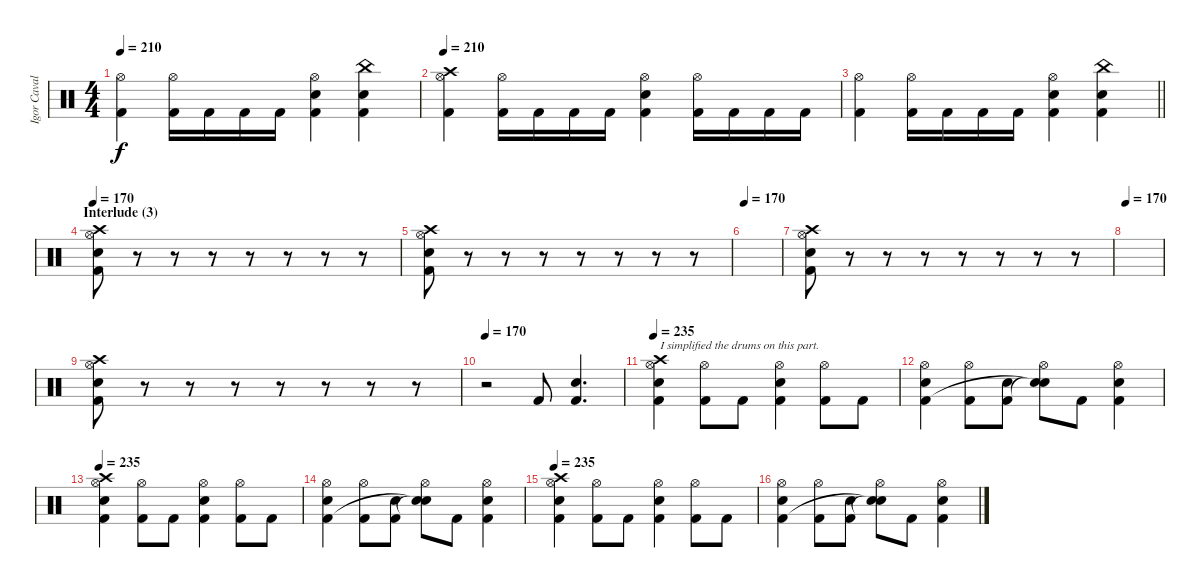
\track ("Igor Cavalera" "Igor Caval") {instrument percussion}
\staff {score}
\articulation defaults
\ts (4 4)
\tempo 210
\clef neutral
\ks c
("Hi-Hat (open)" "Kick (hit) 2").4{dy f} ("Hi-Hat (open)" "Kick (hit) 2").16 "Kick (hit) 2".16 "Kick (hit) 2".16 "Kick (hit) 2".16 ("Hi-Hat (open)" "Electric Snare (hit)" "Kick (hit) 2").4 ("China (hit)" "Electric Snare (hit)" "Kick (hit) 2").4 |
\tempo 210
("Crash high (hit)" "Hi-Hat (open)" "Kick (hit) 2").4 ("Hi-Hat (open)" "Kick (hit) 2").16 "Kick (hit) 2".16 "Kick (hit) 2".16 "Kick (hit) 2".16 ("Hi-Hat (open)" "Electric Snare (hit)" "Kick (hit) 2").4 ("Hi-Hat (open)" "Kick (hit) 2").16 "Kick (hit) 2".16 "Kick (hit) 2".16 "Kick (hit) 2".16 |
\barLineRight lightlight
("Hi-Hat (open)" "Kick (hit) 2").4 ("Hi-Hat (open)" "Kick (hit) 2").16 "Kick (hit) 2".16 "Kick (hit) 2".16 "Kick (hit) 2".16 ("Hi-Hat (open)" "Electric Snare (hit)" "Kick (hit) 2").4 ("China (hit)" "Electric Snare (hit)" "Kick (hit) 2").4 |
\section ("" "Interlude (3)")
\tempo 170
("Crash high (hit)" "Hi-Hat (open)" "Electric Snare (hit)" "Kick (hit) 2").8 r.8 r.8 r.8 r.8 r.8 r.8 r.8 |
("Crash high (hit)" "Hi-Hat (open)" "Electric Snare (hit)" "Kick (hit) 2").8 r.8 r.8 r.8 r.8 r.8 r.8 r.8 |
\tempo 170
|
("Crash high (hit)" "Hi-Hat (open)" "Electric Snare (hit)" "Kick (hit) 2").8 r.8 r.8 r.8 r.8 r.8 r.8 r.8 |
\tempo 170
|
("Crash high (hit)" "Hi-Hat (open)" "Electric Snare (hit)" "Kick (hit) 2").8 r.8 r.8 r.8 r.8 r.8 r.8 r.8 |
\tempo 170
r.2 "Kick (hit) 2".8 ("Snare (hit) 2" "Kick (hit) 2").4{d} |
\tempo 235
("Crash high (hit)" "Hi-Hat (open)" "Electric Snare (hit)" "Kick (hit) 2").4{txt "I simplified the drums on this part."} ("Hi-Hat (open)" "Kick (hit) 2").8 "Kick (hit) 2".8 ("Hi-Hat (open)" "Electric Snare (hit)" "Kick (hit) 2").4 ("Hi-Hat (open)" "Kick (hit) 2").8 "Kick (hit) 2".8 |
("Hi-Hat (open)" "Electric Snare (hit)" "Kick (hit) 2").4 ("Hi-Hat (open)" "Kick (hit) 2").8 ("Electric Snare (hit)" "Kick (hit) 2").8 ("Hi-Hat (open)" "Snare (hit)"{t} "Snare (hit)"{t}).8 "Kick (hit) 2".8 ("Hi-Hat (open)" "Electric Snare (hit)" "Kick (hit) 2").4 |
\tempo 235
("Crash high (hit)" "Hi-Hat (open)" "Electric Snare (hit)" "Kick (hit) 2").4 ("Hi-Hat (open)" "Kick (hit) 2").8 "Kick (hit) 2".8 ("Hi-Hat (open)" "Electric Snare (hit)" "Kick (hit) 2").4 ("Hi-Hat (open)" "Kick (hit) 2").8 "Kick (hit) 2".8 |
("Hi-Hat (open)" "Electric Snare (hit)" "Kick (hit) 2").4 ("Hi-Hat (open)" "Kick (hit) 2").8 ("Electric Snare (hit)" "Kick (hit) 2").8 ("Hi-Hat (open)" "Snare (hit)"{t} "Snare (hit)"{t}).8 "Kick (hit) 2".8 ("Hi-Hat (open)" "Electric Snare (hit)" "Kick (hit) 2").4 |
\tempo 235
("Crash high (hit)" "Hi-Hat (open)" "Electric Snare (hit)" "Kick (hit) 2").4 ("Hi-Hat (open)" "Kick (hit) 2").8 "Kick (hit) 2".8 ("Hi-Hat (open)" "Electric Snare (hit)" "Kick (hit) 2").4 ("Hi-Hat (open)" "Kick (hit) 2").8 "Kick (hit) 2".8 |
("Hi-Hat (open)" "Electric Snare (hit)" "Kick (hit) 2").4 ("Hi-Hat (open)" "Kick (hit) 2").8 ("Electric Snare (hit)" "Kick (hit) 2").8 ("Hi-Hat (open)" "Snare (hit)"{t} "Snare (hit)"{t}).8 "Kick (hit) 2".8 ("Hi-Hat (open)" "Electric Snare (hit)" "Kick (hit) 2").4
